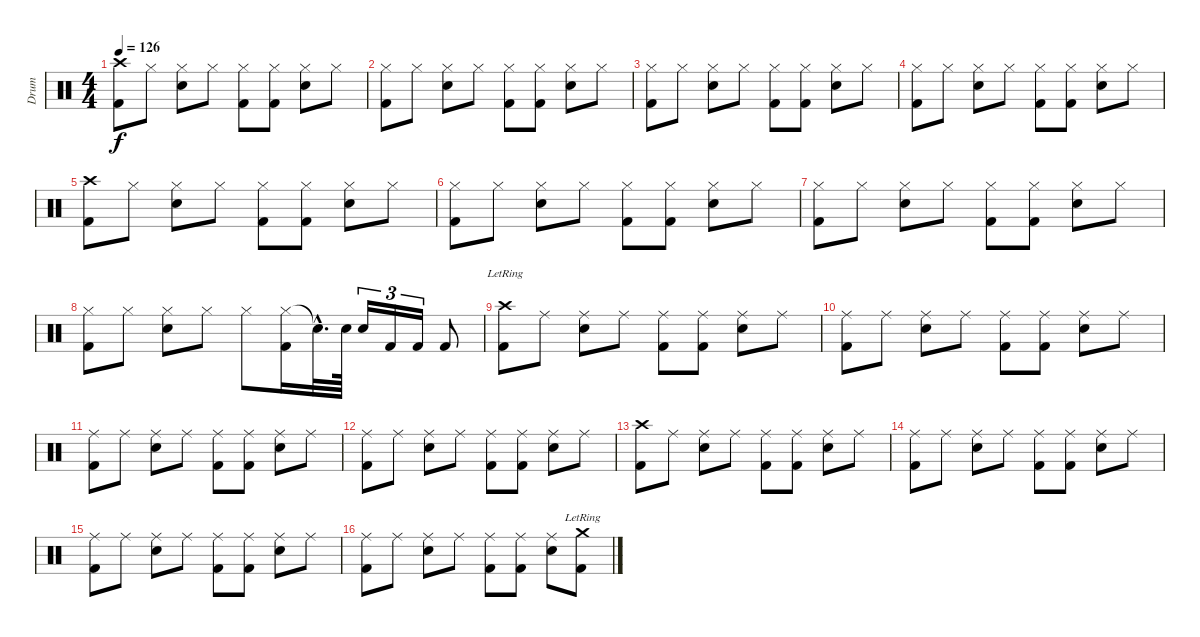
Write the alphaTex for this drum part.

\track ("Drum" "Drum") {instrument percussion}
\staff {score}
\articulation defaults
\ts (4 4)
\tempo 126
\clef neutral
\ks c
("Crash high (hit)" "Kick (hit) 2").8{dy f} "Hi-Hat (closed)".8 ("Hi-Hat (closed)" "Snare (hit) 2").8 "Hi-Hat (closed)".8 ("Hi-Hat (closed)" "Kick (hit) 2").8 ("Hi-Hat (closed)" "Kick (hit) 2").8 ("Hi-Hat (closed)" "Snare (hit) 2").8 "Hi-Hat (closed)".8 |
("Hi-Hat (closed)" "Kick (hit) 2").8 "Hi-Hat (closed)".8 ("Hi-Hat (closed)" "Snare (hit) 2").8 "Hi-Hat (closed)".8 ("Hi-Hat (closed)" "Kick (hit) 2").8 ("Hi-Hat (closed)" "Kick (hit) 2").8 ("Hi-Hat (closed)" "Snare (hit) 2").8 "Hi-Hat (closed)".8 |
("Hi-Hat (closed)" "Kick (hit) 2").8 "Hi-Hat (closed)".8 ("Hi-Hat (closed)" "Snare (hit) 2").8 "Hi-Hat (closed)".8 ("Hi-Hat (closed)" "Kick (hit) 2").8 ("Hi-Hat (closed)" "Kick (hit) 2").8 ("Hi-Hat (closed)" "Snare (hit) 2").8 "Hi-Hat (closed)".8 |
("Hi-Hat (closed)" "Kick (hit) 2").8 "Hi-Hat (closed)".8 ("Hi-Hat (closed)" "Snare (hit) 2").8 "Hi-Hat (closed)".8 ("Hi-Hat (closed)" "Kick (hit) 2").8 ("Hi-Hat (closed)" "Kick (hit) 2").8 ("Hi-Hat (closed)" "Snare (hit) 2").8 "Hi-Hat (closed)".8 |
("Crash high (hit)" "Kick (hit) 2").8 "Hi-Hat (closed)".8 ("Hi-Hat (closed)" "Snare (hit) 2").8 "Hi-Hat (closed)".8 ("Hi-Hat (closed)" "Kick (hit) 2").8 ("Hi-Hat (closed)" "Kick (hit) 2").8 ("Hi-Hat (closed)" "Snare (hit) 2").8 "Hi-Hat (closed)".8 |
("Hi-Hat (closed)" "Kick (hit) 2").8 "Hi-Hat (closed)".8 ("Hi-Hat (closed)" "Snare (hit) 2").8 "Hi-Hat (closed)".8 ("Hi-Hat (closed)" "Kick (hit) 2").8 ("Hi-Hat (closed)" "Kick (hit) 2").8 ("Hi-Hat (closed)" "Snare (hit) 2").8 "Hi-Hat (closed)".8 |
("Hi-Hat (closed)" "Kick (hit) 2").8 "Hi-Hat (closed)".8 ("Hi-Hat (closed)" "Snare (hit) 2").8 "Hi-Hat (closed)".8 ("Hi-Hat (closed)" "Kick (hit) 2").8 ("Hi-Hat (closed)" "Kick (hit) 2").8 ("Hi-Hat (closed)" "Snare (hit) 2").8 "Hi-Hat (closed)".8 |
("Hi-Hat (closed)" "Kick (hit) 2").8 "Hi-Hat (closed)".8 ("Hi-Hat (closed)" "Snare (hit) 2").8 "Hi-Hat (closed)".8 "Hi-Hat (closed)".8 ("Hi-Hat (closed)" "Kick (hit) 2").16 "Snare (hit)"{hac t}.32{d} "Snare (hit) 2".64 "Snare (hit) 2".16{tu (3 2)} "Kick (hit) 2".16{tu (3 2)} "Kick (hit) 2".16{tu (3 2)} "Kick (hit) 2".8 |
("Crash high (hit)"{lr} "Kick (hit) 2").8 "Ride (middle)".8 ("Ride (middle)" "Snare (hit) 2").8 "Ride (middle)".8 ("Ride (middle)" "Kick (hit) 2").8 ("Ride (middle)" "Kick (hit) 2").8 ("Ride (middle)" "Snare (hit) 2").8 "Ride (middle)".8 |
("Ride (middle)" "Kick (hit) 2").8 "Ride (middle)".8 ("Ride (middle)" "Snare (hit) 2").8 "Ride (middle)".8 ("Ride (middle)" "Kick (hit) 2").8 ("Ride (middle)" "Kick (hit) 2").8 ("Ride (middle)" "Snare (hit) 2").8 "Ride (middle)".8 |
("Ride (middle)" "Kick (hit) 2").8 "Ride (middle)".8 ("Ride (middle)" "Snare (hit) 2").8 "Ride (middle)".8 ("Ride (middle)" "Kick (hit) 2").8 ("Ride (middle)" "Kick (hit) 2").8 ("Ride (middle)" "Snare (hit) 2").8 "Ride (middle)".8 |
("Ride (middle)" "Kick (hit) 2").8 "Ride (middle)".8 ("Ride (middle)" "Snare (hit) 2").8 "Ride (middle)".8 ("Ride (middle)" "Kick (hit) 2").8 ("Ride (middle)" "Kick (hit) 2").8 ("Ride (middle)" "Snare (hit) 2").8 "Ride (middle)".8 |
("Crash high (hit)" "Kick (hit) 2").8 "Ride (middle)".8 ("Ride (middle)" "Snare (hit) 2").8 "Ride (middle)".8 ("Ride (middle)" "Kick (hit) 2").8 ("Ride (middle)" "Kick (hit) 2").8 ("Ride (middle)" "Snare (hit) 2").8 "Ride (middle)".8 |
("Ride (middle)" "Kick (hit) 2").8 "Ride (middle)".8 ("Ride (middle)" "Snare (hit) 2").8 "Ride (middle)".8 ("Ride (middle)" "Kick (hit) 2").8 ("Ride (middle)" "Kick (hit) 2").8 ("Ride (middle)" "Snare (hit) 2").8 "Ride (middle)".8 |
("Ride (middle)" "Kick (hit) 2").8 "Ride (middle)".8 ("Ride (middle)" "Snare (hit) 2").8 "Ride (middle)".8 ("Ride (middle)" "Kick (hit) 2").8 ("Ride (middle)" "Kick (hit) 2").8 ("Ride (middle)" "Snare (hit) 2").8 "Ride (middle)".8 |
("Ride (middle)" "Kick (hit) 2").8 "Ride (middle)".8 ("Ride (middle)" "Snare (hit) 2").8 "Ride (middle)".8 ("Ride (middle)" "Kick (hit) 2").8 ("Ride (middle)" "Kick (hit) 2").8 ("Ride (middle)" "Snare (hit) 2").8 ("Crash medium (hit)"{lr} "Kick (hit) 2").8
